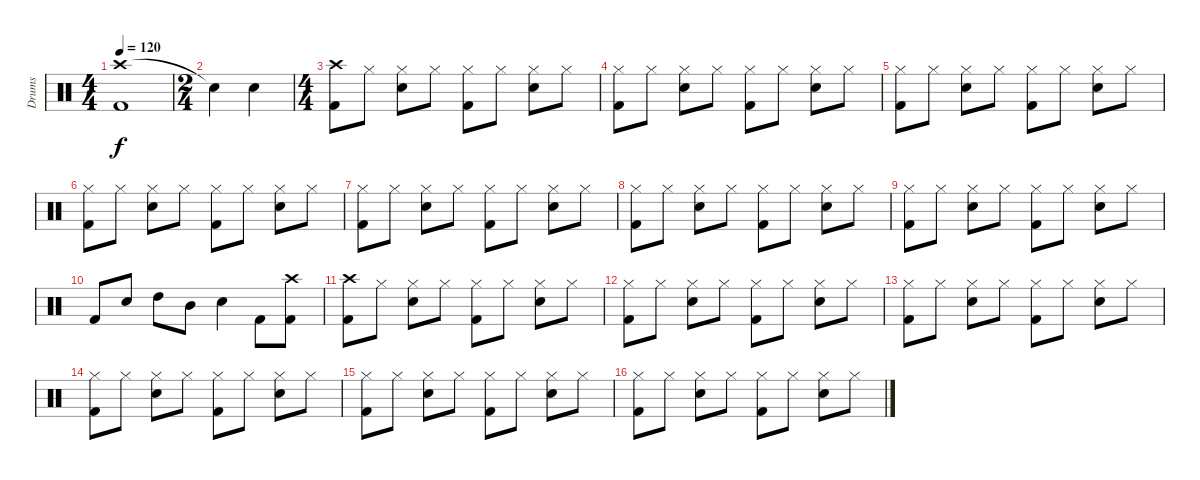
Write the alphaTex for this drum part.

\track ("Drums" "Drums") {instrument percussion}
\staff {score}
\articulation defaults
\ts (4 4)
\tempo 120
\clef neutral
\ks c
("Crash high (hit)" "Kick (hit) 2").1{dy f} |
\ts (2 4)
"Snare (hit)"{t}.4 "Electric Snare (hit)".4 |
\ts (4 4)
("Crash high (hit)" "Kick (hit) 2").8 "Hi-Hat (closed)".8 ("Hi-Hat (closed)" "Electric Snare (hit)").8 "Hi-Hat (closed)".8 ("Hi-Hat (closed)" "Kick (hit) 2").8 "Hi-Hat (closed)".8 ("Hi-Hat (closed)" "Electric Snare (hit)").8 "Hi-Hat (closed)".8 |
("Hi-Hat (closed)" "Kick (hit) 2").8 "Hi-Hat (closed)".8 ("Hi-Hat (closed)" "Electric Snare (hit)").8 "Hi-Hat (closed)".8 ("Hi-Hat (closed)" "Kick (hit) 2").8 "Hi-Hat (closed)".8 ("Hi-Hat (closed)" "Electric Snare (hit)").8 "Hi-Hat (closed)".8 |
("Hi-Hat (closed)" "Kick (hit) 2").8 "Hi-Hat (closed)".8 ("Hi-Hat (closed)" "Electric Snare (hit)").8 "Hi-Hat (closed)".8 ("Hi-Hat (closed)" "Kick (hit) 2").8 "Hi-Hat (closed)".8 ("Hi-Hat (closed)" "Electric Snare (hit)").8 "Hi-Hat (closed)".8 |
("Hi-Hat (closed)" "Kick (hit) 2").8 "Hi-Hat (closed)".8 ("Hi-Hat (closed)" "Electric Snare (hit)").8 "Hi-Hat (closed)".8 ("Hi-Hat (closed)" "Kick (hit) 2").8 "Hi-Hat (closed)".8 ("Hi-Hat (closed)" "Electric Snare (hit)").8 "Hi-Hat (closed)".8 |
("Hi-Hat (closed)" "Kick (hit) 2").8 "Hi-Hat (closed)".8 ("Hi-Hat (closed)" "Electric Snare (hit)").8 "Hi-Hat (closed)".8 ("Hi-Hat (closed)" "Kick (hit) 2").8 "Hi-Hat (closed)".8 ("Hi-Hat (closed)" "Electric Snare (hit)").8 "Hi-Hat (closed)".8 |
("Hi-Hat (closed)" "Kick (hit) 2").8 "Hi-Hat (closed)".8 ("Hi-Hat (closed)" "Electric Snare (hit)").8 "Hi-Hat (closed)".8 ("Hi-Hat (closed)" "Kick (hit) 2").8 "Hi-Hat (closed)".8 ("Hi-Hat (closed)" "Electric Snare (hit)").8 "Hi-Hat (closed)".8 |
("Hi-Hat (closed)" "Kick (hit) 2").8 "Hi-Hat (closed)".8 ("Hi-Hat (closed)" "Electric Snare (hit)").8 "Hi-Hat (closed)".8 ("Hi-Hat (closed)" "Kick (hit) 2").8 "Hi-Hat (closed)".8 ("Hi-Hat (closed)" "Electric Snare (hit)").8 "Hi-Hat (closed)".8 |
"Kick (hit) 2".8 "Electric Snare (hit)".8 "High Tom (hit)".8 "Mid Tom (hit)".8 "Electric Snare (hit)".4 "Kick (hit) 2".8 ("Crash high (hit)" "Kick (hit) 2").8 |
("Crash high (hit)" "Kick (hit) 2").8 "Hi-Hat (closed)".8 ("Hi-Hat (closed)" "Electric Snare (hit)").8 "Hi-Hat (closed)".8 ("Hi-Hat (closed)" "Kick (hit) 2").8 "Hi-Hat (closed)".8 ("Hi-Hat (closed)" "Electric Snare (hit)").8 "Hi-Hat (closed)".8 |
("Hi-Hat (closed)" "Kick (hit) 2").8 "Hi-Hat (closed)".8 ("Hi-Hat (closed)" "Electric Snare (hit)").8 "Hi-Hat (closed)".8 ("Hi-Hat (closed)" "Kick (hit) 2").8 "Hi-Hat (closed)".8 ("Hi-Hat (closed)" "Electric Snare (hit)").8 "Hi-Hat (closed)".8 |
("Hi-Hat (closed)" "Kick (hit) 2").8 "Hi-Hat (closed)".8 ("Hi-Hat (closed)" "Electric Snare (hit)").8 "Hi-Hat (closed)".8 ("Hi-Hat (closed)" "Kick (hit) 2").8 "Hi-Hat (closed)".8 ("Hi-Hat (closed)" "Electric Snare (hit)").8 "Hi-Hat (closed)".8 |
("Hi-Hat (closed)" "Kick (hit) 2").8 "Hi-Hat (closed)".8 ("Hi-Hat (closed)" "Electric Snare (hit)").8 "Hi-Hat (closed)".8 ("Hi-Hat (closed)" "Kick (hit) 2").8 "Hi-Hat (closed)".8 ("Hi-Hat (closed)" "Electric Snare (hit)").8 "Hi-Hat (closed)".8 |
("Hi-Hat (closed)" "Kick (hit) 2").8 "Hi-Hat (closed)".8 ("Hi-Hat (closed)" "Electric Snare (hit)").8 "Hi-Hat (closed)".8 ("Hi-Hat (closed)" "Kick (hit) 2").8 "Hi-Hat (closed)".8 ("Hi-Hat (closed)" "Electric Snare (hit)").8 "Hi-Hat (closed)".8 |
("Hi-Hat (closed)" "Kick (hit) 2").8 "Hi-Hat (closed)".8 ("Hi-Hat (closed)" "Electric Snare (hit)").8 "Hi-Hat (closed)".8 ("Hi-Hat (closed)" "Kick (hit) 2").8 "Hi-Hat (closed)".8 ("Hi-Hat (closed)" "Electric Snare (hit)").8 "Hi-Hat (closed)".8
